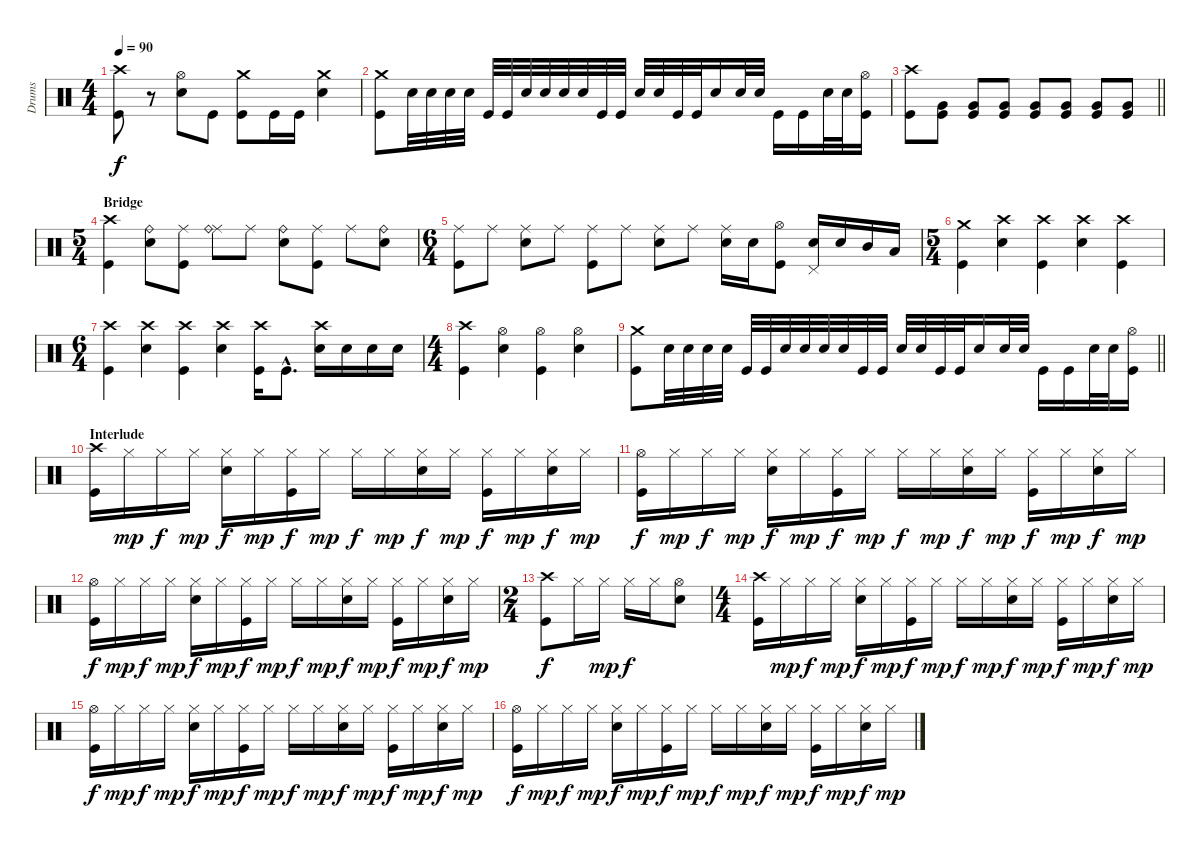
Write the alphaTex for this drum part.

\track ("Drums" "Drums") {instrument percussion}
\staff {score}
\articulation defaults
\ts (4 4)
\tempo 90
\clef neutral
\ks c
("Crash high (hit)" "Kick (hit)").8{dy f} r.8 ("Hi-Hat (open)" "Electric Snare (hit)").8 "Kick (hit)".8 ("Crash medium (hit)" "Kick (hit)").8 "Kick (hit)".16 "Kick (hit)".16 ("Crash medium (hit)" "Electric Snare (hit)").4 |
("Crash medium (hit)" "Kick (hit)").8 "Electric Snare (hit)".32 "Electric Snare (hit)".32 "Electric Snare (hit)".32 "Electric Snare (hit)".32 "Kick (hit)".32 "Kick (hit)".32 "Electric Snare (hit)".32 "Electric Snare (hit)".32 "Electric Snare (hit)".32 "Electric Snare (hit)".32 "Kick (hit)".32 "Kick (hit)".32 "Electric Snare (hit)".32 "Electric Snare (hit)".32 "Kick (hit)".32 "Kick (hit)".32 "Electric Snare (hit)".16 "Electric Snare (hit)".32 "Electric Snare (hit)".32 "Kick (hit)".16 "Kick (hit)".16 "Electric Snare (hit)".32 "Electric Snare (hit)".32 ("Hi-Hat (open)" "Kick (hit)").16 |
\barLineRight lightlight
("Crash high (hit)" "Kick (hit)").8 ("Very Low Tom (hit)" "Kick (hit)").8 ("Very Low Tom (hit)" "Kick (hit)").8 ("Very Low Tom (hit)" "Kick (hit)").8 ("Very Low Tom (hit)" "Kick (hit)").8 ("Very Low Tom (hit)" "Kick (hit)").8 ("Very Low Tom (hit)" "Kick (hit)").8 ("Very Low Tom (hit)" "Kick (hit)").8 |
\ts (5 4)
\section ("" "Bridge")
("Crash high (hit)" "Kick (hit)").4 ("Ride (bell)" "Electric Snare (hit)").8 ("Ride (middle)" "Kick (hit)").8 ("Ride (middle)" "Ride (bell)").8 "Ride (middle)".8 ("Ride (bell)" "Electric Snare (hit)").8 ("Ride (middle)" "Kick (hit)").8 "Ride (middle)".8 ("Ride (bell)" "Electric Snare (hit)").8 |
\ts (6 4)
("Ride (middle)" "Kick (hit)").8 "Ride (middle)".8 ("Ride (middle)" "Electric Snare (hit)").8 "Ride (middle)".8 ("Ride (middle)" "Kick (hit)").8 "Ride (middle)".8 ("Ride (middle)" "Electric Snare (hit)").8 "Ride (middle)".8 ("Ride (middle)" "Electric Snare (hit)").16 "Electric Snare (hit)".16 ("Hi-Hat (open)" "Kick (hit)").8 ("Pedal Hi-Hat (hit)" "Electric Snare (hit)").16 "Electric Snare (hit)".16 "Mid Tom (hit)".16 "Low Tom (hit)".16 |
\ts (5 4)
("Crash medium (hit)" "Kick (hit)").4 ("Crash high (hit)" "Electric Snare (hit)").4 ("Crash high (hit)" "Kick (hit)").4 ("Crash high (hit)" "Electric Snare (hit)").4 ("Crash high (hit)" "Kick (hit)").4 |
\ts (6 4)
("Crash high (hit)" "Kick (hit)").4 ("Crash high (hit)" "Electric Snare (hit)").4 ("Crash high (hit)" "Kick (hit)").4 ("Crash high (hit)" "Electric Snare (hit)").4 ("Crash high (hit)" "Kick (hit)").16 "Kick (hit)"{hac}.8{d} ("Crash high (hit)" "Electric Snare (hit)").16 "Electric Snare (hit)".16 "Electric Snare (hit)".16 "Electric Snare (hit)".16 |
\ts (4 4)
("Crash high (hit)" "Kick (hit)").4 ("Hi-Hat (open)" "Electric Snare (hit)").4 ("Hi-Hat (open)" "Kick (hit)").4 ("Hi-Hat (open)" "Electric Snare (hit)").4 |
\barLineRight lightlight
("Crash medium (hit)" "Kick (hit)").8 "Electric Snare (hit)".32 "Electric Snare (hit)".32 "Electric Snare (hit)".32 "Electric Snare (hit)".32 "Kick (hit)".32 "Kick (hit)".32 "Electric Snare (hit)".32 "Electric Snare (hit)".32 "Electric Snare (hit)".32 "Electric Snare (hit)".32 "Kick (hit)".32 "Kick (hit)".32 "Electric Snare (hit)".32 "Electric Snare (hit)".32 "Kick (hit)".32 "Kick (hit)".32 "Electric Snare (hit)".16 "Electric Snare (hit)".32 "Electric Snare (hit)".32 "Kick (hit)".16 "Kick (hit)".16 "Electric Snare (hit)".32 "Electric Snare (hit)".32 ("Hi-Hat (open)" "Kick (hit)").16 |
\section ("" "Interlude")
("Crash high (hit)" "Kick (hit)").16 "Hi-Hat (closed)".16{dy mp} "Hi-Hat (closed)".16{dy f} "Hi-Hat (closed)".16{dy mp} ("Hi-Hat (closed)" "Electric Snare (hit)").16{dy f} "Hi-Hat (closed)".16{dy mp} ("Hi-Hat (closed)" "Kick (hit)").16{dy f} "Hi-Hat (closed)".16{dy mp} "Hi-Hat (closed)".16{dy f} "Hi-Hat (closed)".16{dy mp} ("Hi-Hat (closed)" "Electric Snare (hit)").16{dy f} "Hi-Hat (closed)".16{dy mp} ("Hi-Hat (closed)" "Kick (hit)").16{dy f} "Hi-Hat (closed)".16{dy mp} ("Hi-Hat (closed)" "Electric Snare (hit)").16{dy f} "Hi-Hat (closed)".16{dy mp} |
("Hi-Hat (open)" "Kick (hit)").16{dy f} "Hi-Hat (closed)".16{dy mp} "Hi-Hat (closed)".16{dy f} "Hi-Hat (closed)".16{dy mp} ("Hi-Hat (closed)" "Electric Snare (hit)").16{dy f} "Hi-Hat (closed)".16{dy mp} ("Hi-Hat (closed)" "Kick (hit)").16{dy f} "Hi-Hat (closed)".16{dy mp} "Hi-Hat (closed)".16{dy f} "Hi-Hat (closed)".16{dy mp} ("Hi-Hat (closed)" "Electric Snare (hit)").16{dy f} "Hi-Hat (closed)".16{dy mp} ("Hi-Hat (closed)" "Kick (hit)").16{dy f} "Hi-Hat (closed)".16{dy mp} ("Hi-Hat (closed)" "Electric Snare (hit)").16{dy f} "Hi-Hat (closed)".16{dy mp} |
("Hi-Hat (open)" "Kick (hit)").16{dy f} "Hi-Hat (closed)".16{dy mp} "Hi-Hat (closed)".16{dy f} "Hi-Hat (closed)".16{dy mp} ("Hi-Hat (closed)" "Electric Snare (hit)").16{dy f} "Hi-Hat (closed)".16{dy mp} ("Hi-Hat (closed)" "Kick (hit)").16{dy f} "Hi-Hat (closed)".16{dy mp} "Hi-Hat (closed)".16{dy f} "Hi-Hat (closed)".16{dy mp} ("Hi-Hat (closed)" "Electric Snare (hit)").16{dy f} "Hi-Hat (closed)".16{dy mp} ("Hi-Hat (closed)" "Kick (hit)").16{dy f} "Hi-Hat (closed)".16{dy mp} ("Hi-Hat (closed)" "Electric Snare (hit)").16{dy f} "Hi-Hat (closed)".16{dy mp} |
\ts (2 4)
("Crash high (hit)" "Kick (hit)").8{dy f} "Hi-Hat (closed)".16 "Hi-Hat (closed)".16{dy mp} "Hi-Hat (closed)".16{dy f} "Hi-Hat (closed)".16 ("Hi-Hat (open)" "Electric Snare (hit)").8 |
\ts (4 4)
("Crash high (hit)" "Kick (hit)").16 "Hi-Hat (closed)".16{dy mp} "Hi-Hat (closed)".16{dy f} "Hi-Hat (closed)".16{dy mp} ("Hi-Hat (closed)" "Electric Snare (hit)").16{dy f} "Hi-Hat (closed)".16{dy mp} ("Hi-Hat (closed)" "Kick (hit)").16{dy f} "Hi-Hat (closed)".16{dy mp} "Hi-Hat (closed)".16{dy f} "Hi-Hat (closed)".16{dy mp} ("Hi-Hat (closed)" "Electric Snare (hit)").16{dy f} "Hi-Hat (closed)".16{dy mp} ("Hi-Hat (closed)" "Kick (hit)").16{dy f} "Hi-Hat (closed)".16{dy mp} ("Hi-Hat (closed)" "Electric Snare (hit)").16{dy f} "Hi-Hat (closed)".16{dy mp} |
("Hi-Hat (open)" "Kick (hit)").16{dy f} "Hi-Hat (closed)".16{dy mp} "Hi-Hat (closed)".16{dy f} "Hi-Hat (closed)".16{dy mp} ("Hi-Hat (closed)" "Electric Snare (hit)").16{dy f} "Hi-Hat (closed)".16{dy mp} ("Hi-Hat (closed)" "Kick (hit)").16{dy f} "Hi-Hat (closed)".16{dy mp} "Hi-Hat (closed)".16{dy f} "Hi-Hat (closed)".16{dy mp} ("Hi-Hat (closed)" "Electric Snare (hit)").16{dy f} "Hi-Hat (closed)".16{dy mp} ("Hi-Hat (closed)" "Kick (hit)").16{dy f} "Hi-Hat (closed)".16{dy mp} ("Hi-Hat (closed)" "Electric Snare (hit)").16{dy f} "Hi-Hat (closed)".16{dy mp} |
("Hi-Hat (open)" "Kick (hit)").16{dy f} "Hi-Hat (closed)".16{dy mp} "Hi-Hat (closed)".16{dy f} "Hi-Hat (closed)".16{dy mp} ("Hi-Hat (closed)" "Electric Snare (hit)").16{dy f} "Hi-Hat (closed)".16{dy mp} ("Hi-Hat (closed)" "Kick (hit)").16{dy f} "Hi-Hat (closed)".16{dy mp} "Hi-Hat (closed)".16{dy f} "Hi-Hat (closed)".16{dy mp} ("Hi-Hat (closed)" "Electric Snare (hit)").16{dy f} "Hi-Hat (closed)".16{dy mp} ("Hi-Hat (closed)" "Kick (hit)").16{dy f} "Hi-Hat (closed)".16{dy mp} ("Hi-Hat (closed)" "Electric Snare (hit)").16{dy f} "Hi-Hat (closed)".16{dy mp}
